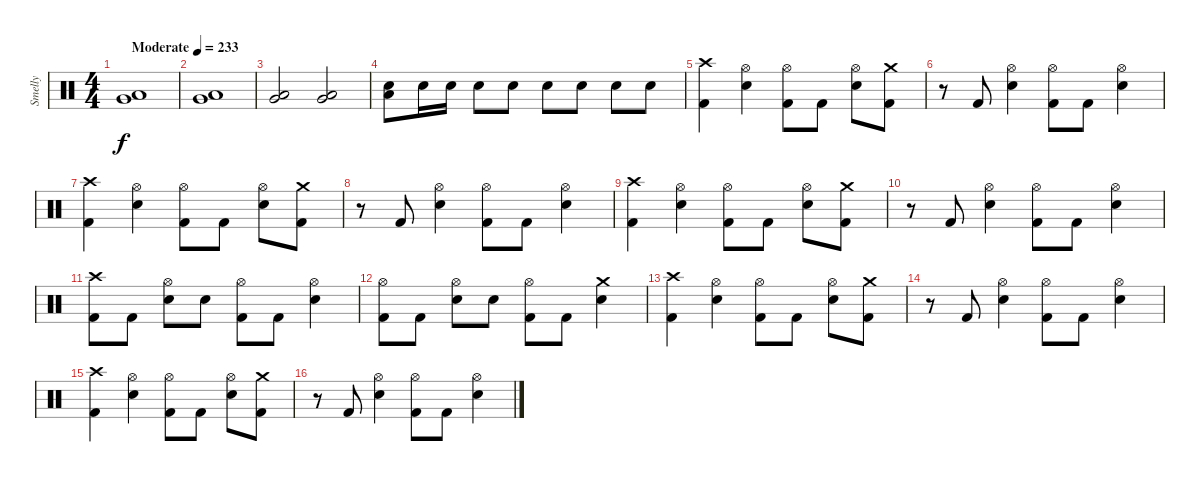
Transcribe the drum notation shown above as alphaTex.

\track ("Smelly" "Smelly") {instrument percussion}
\staff {score}
\articulation defaults
\ts (4 4)
\tempo (233 "Moderate")
\clef neutral
\ks c
("Very Low Tom (hit)" "Low Floor Tom (hit)").1{dy f} |
("Very Low Tom (hit)" "Low Floor Tom (hit)").1 |
("Very Low Tom (hit)" "Low Floor Tom (hit)").2 ("Very Low Tom (hit)" "Low Floor Tom (hit)").2 |
("Electric Snare (hit)" "Low Floor Tom (hit)").8 "Electric Snare (hit)".16 "Electric Snare (hit)".16 "Electric Snare (hit)".8 "Electric Snare (hit)".8 "Electric Snare (hit)".8 "Electric Snare (hit)".8 "Electric Snare (hit)".8 "Electric Snare (hit)".8 |
("Crash high (hit)" "Kick (hit) 2").4 ("Hi-Hat (open)" "Electric Snare (hit)").4 ("Hi-Hat (open)" "Kick (hit) 2").8 "Kick (hit) 2".8 ("Hi-Hat (open)" "Electric Snare (hit)").8 ("Crash medium (hit)" "Kick (hit) 2").8 |
r.8 "Kick (hit) 2".8 ("Hi-Hat (open)" "Electric Snare (hit)").4 ("Hi-Hat (open)" "Kick (hit) 2").8 "Kick (hit) 2".8 ("Hi-Hat (open)" "Electric Snare (hit)").4 |
("Crash high (hit)" "Kick (hit) 2").4 ("Hi-Hat (open)" "Electric Snare (hit)").4 ("Hi-Hat (open)" "Kick (hit) 2").8 "Kick (hit) 2".8 ("Hi-Hat (open)" "Electric Snare (hit)").8 ("Crash medium (hit)" "Kick (hit) 2").8 |
r.8 "Kick (hit) 2".8 ("Hi-Hat (open)" "Electric Snare (hit)").4 ("Hi-Hat (open)" "Kick (hit) 2").8 "Kick (hit) 2".8 ("Hi-Hat (open)" "Electric Snare (hit)").4 |
("Crash high (hit)" "Kick (hit) 2").4 ("Hi-Hat (open)" "Electric Snare (hit)").4 ("Hi-Hat (open)" "Kick (hit) 2").8 "Kick (hit) 2".8 ("Hi-Hat (open)" "Electric Snare (hit)").8 ("Crash medium (hit)" "Kick (hit) 2").8 |
r.8 "Kick (hit) 2".8 ("Hi-Hat (open)" "Electric Snare (hit)").4 ("Hi-Hat (open)" "Kick (hit) 2").8 "Kick (hit) 2".8 ("Hi-Hat (open)" "Electric Snare (hit)").4 |
("Crash high (hit)" "Kick (hit) 2").8 "Kick (hit) 2".8 ("Hi-Hat (open)" "Electric Snare (hit)").8 "Electric Snare (hit)".8 ("Hi-Hat (open)" "Kick (hit) 2").8 "Kick (hit) 2".8 ("Hi-Hat (open)" "Electric Snare (hit)").4 |
("Hi-Hat (open)" "Kick (hit) 2").8 "Kick (hit) 2".8 ("Hi-Hat (open)" "Electric Snare (hit)").8 "Electric Snare (hit)".8 ("Hi-Hat (open)" "Kick (hit) 2").8 "Kick (hit) 2".8 ("Crash medium (hit)" "Electric Snare (hit)").4 |
("Crash high (hit)" "Kick (hit) 2").4 ("Hi-Hat (open)" "Electric Snare (hit)").4 ("Hi-Hat (open)" "Kick (hit) 2").8 "Kick (hit) 2".8 ("Hi-Hat (open)" "Electric Snare (hit)").8 ("Crash medium (hit)" "Kick (hit) 2").8 |
r.8 "Kick (hit) 2".8 ("Hi-Hat (open)" "Electric Snare (hit)").4 ("Hi-Hat (open)" "Kick (hit) 2").8 "Kick (hit) 2".8 ("Hi-Hat (open)" "Electric Snare (hit)").4 |
("Crash high (hit)" "Kick (hit) 2").4 ("Hi-Hat (open)" "Electric Snare (hit)").4 ("Hi-Hat (open)" "Kick (hit) 2").8 "Kick (hit) 2".8 ("Hi-Hat (open)" "Electric Snare (hit)").8 ("Crash medium (hit)" "Kick (hit) 2").8 |
r.8 "Kick (hit) 2".8 ("Hi-Hat (open)" "Electric Snare (hit)").4 ("Hi-Hat (open)" "Kick (hit) 2").8 "Kick (hit) 2".8 ("Hi-Hat (open)" "Electric Snare (hit)").4
